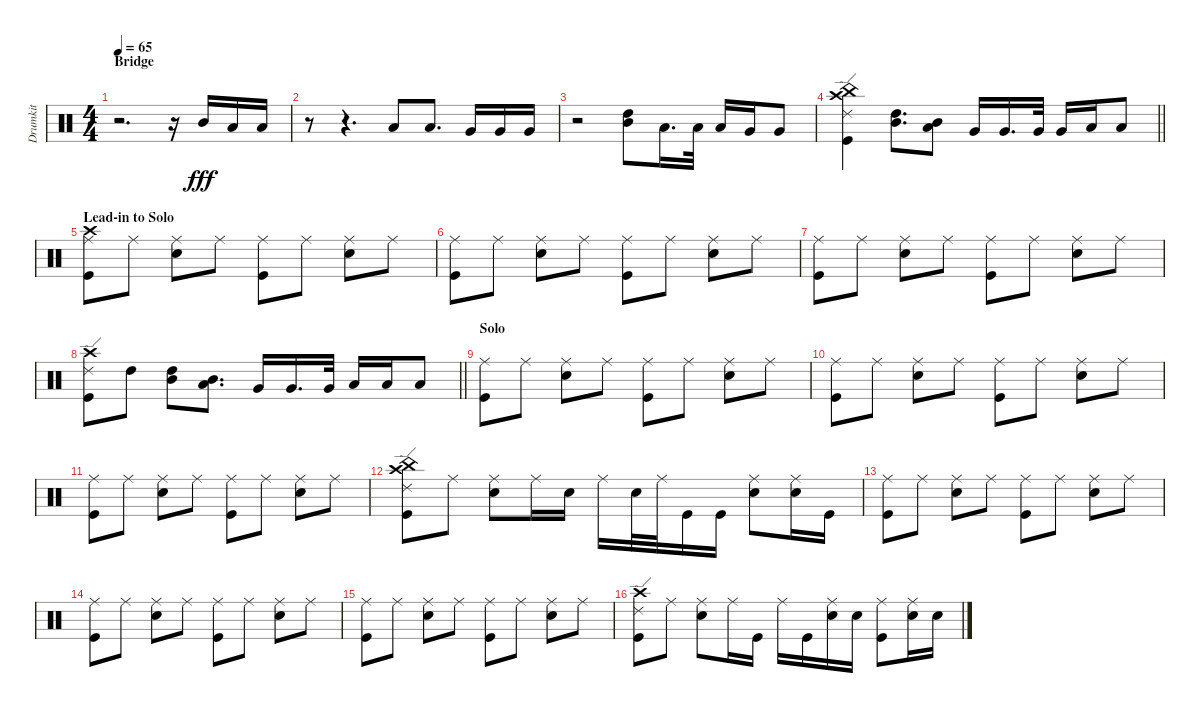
\track ("Drumkit" "Drumkit") {instrument percussion}
\staff {score}
\articulation defaults
\ts (4 4)
\section ("" "Bridge")
\tempo 65
\clef neutral
\ks c
r.2{d dy fff} r.16 "Mid Tom (hit)".16 "Low Tom (hit)".16 "Low Tom (hit)".16 |
r.8 r.4{d} "Low Tom (hit)".8 "Low Tom (hit)".8{d} "Very Low Tom (hit)".16 "Very Low Tom (hit)".16 "Very Low Tom (hit)".16 |
r.2 ("High Tom (hit)" "Mid Tom (hit)").8 "Low Tom (hit)".16{d} "Low Tom (hit)".32 "Low Tom (hit)".16 "Very Low Tom (hit)".16 "Very Low Tom (hit)".8 |
\barLineRight lightlight
("Crash high (hit)" "China (hit)" "Ride (edge) 2" "Kick (hit)").4 ("High Tom (hit)" "Mid Tom (hit)").8{d} ("Mid Tom (hit)" "Low Tom (hit)").8 "Very Low Tom (hit)".16 "Very Low Tom (hit)".16{d} "Very Low Tom (hit)".32 "Very Low Tom (hit)".16 "Low Floor Tom (hit)".16 "Low Floor Tom (hit)".8 |
\section ("" "Lead-in to Solo")
("Ride (middle)" "Crash high (hit)" "Kick (hit)").8 "Ride (middle)".8 ("Ride (middle)" "Snare (hit) 2").8 "Ride (middle)".8 ("Ride (middle)" "Kick (hit)").8 "Ride (middle)".8 ("Snare (hit) 2" "Ride (middle)").8 "Ride (middle)".8 |
("Ride (middle)" "Kick (hit)").8 "Ride (middle)".8 ("Ride (middle)" "Snare (hit) 2").8 "Ride (middle)".8 ("Ride (middle)" "Kick (hit)").8 "Ride (middle)".8 ("Snare (hit) 2" "Ride (middle)").8 "Ride (middle)".8 |
("Ride (middle)" "Kick (hit)").8 "Ride (middle)".8 ("Ride (middle)" "Snare (hit) 2").8 "Ride (middle)".8 ("Ride (middle)" "Kick (hit)").8 "Ride (middle)".8 ("Snare (hit) 2" "Ride (middle)").8 "Ride (middle)".8 |
\barLineRight lightlight
("Ride (edge) 2" "Crash high (hit)" "Kick (hit)").8 "High Tom (hit)".8 ("Mid Tom (hit)" "High Tom (hit)").8 ("Mid Tom (hit)" "Low Tom (hit)").8{d} "Very Low Tom (hit)".16 "Very Low Tom (hit)".16{d} "Very Low Tom (hit)".32 "Low Floor Tom (hit)".16 "Low Floor Tom (hit)".16 "Low Floor Tom (hit)".8 |
\section ("" "Solo")
("Ride (middle)" "Kick (hit)").8 "Ride (middle)".8 ("Ride (middle)" "Snare (hit) 2").8 "Ride (middle)".8 ("Ride (middle)" "Kick (hit)").8 "Ride (middle)".8 ("Snare (hit) 2" "Ride (middle)").8 "Ride (middle)".8 |
("Ride (middle)" "Kick (hit)").8 "Ride (middle)".8 ("Ride (middle)" "Snare (hit) 2").8 "Ride (middle)".8 ("Ride (middle)" "Kick (hit)").8 "Ride (middle)".8 ("Snare (hit) 2" "Ride (middle)").8 "Ride (middle)".8 |
("Ride (middle)" "Kick (hit)").8 "Ride (middle)".8 ("Ride (middle)" "Snare (hit) 2").8 "Ride (middle)".8 ("Ride (middle)" "Kick (hit)").8 "Ride (middle)".8 ("Snare (hit) 2" "Ride (middle)").8 "Ride (middle)".8 |
("Kick (hit)" "China (hit)" "Crash high (hit)" "Ride (edge) 2").8 "Ride (middle)".8 ("Ride (middle)" "Snare (hit) 2").8 "Ride (middle)".16 "Snare (hit) 2".16 "Ride (middle)".16 "Snare (hit) 2".32 "Ride (middle)".32 "Kick (hit)".16 "Kick (hit)".16 ("Ride (middle)" "Snare (hit) 2").8 ("Ride (middle)" "Snare (hit) 2").16 "Kick (hit)".16 |
("Ride (middle)" "Kick (hit)").8 "Ride (middle)".8 ("Ride (middle)" "Snare (hit) 2").8 "Ride (middle)".8 ("Ride (middle)" "Kick (hit)").8 "Ride (middle)".8 ("Snare (hit) 2" "Ride (middle)").8 "Ride (middle)".8 |
("Ride (middle)" "Kick (hit)").8 "Ride (middle)".8 ("Ride (middle)" "Snare (hit) 2").8 "Ride (middle)".8 ("Ride (middle)" "Kick (hit)").8 "Ride (middle)".8 ("Snare (hit) 2" "Ride (middle)").8 "Ride (middle)".8 |
("Ride (middle)" "Kick (hit)").8 "Ride (middle)".8 ("Ride (middle)" "Snare (hit) 2").8 "Ride (middle)".8 ("Ride (middle)" "Kick (hit)").8 "Ride (middle)".8 ("Snare (hit) 2" "Ride (middle)").8 "Ride (middle)".8 |
("Ride (edge) 2" "Crash high (hit)" "Kick (hit)").8 "Ride (middle)".8 ("Ride (middle)" "Snare (hit) 2").8 "Ride (middle)".16 "Kick (hit)".16 "Ride (middle)".16 "Kick (hit)".16 ("Ride (middle)" "Snare (hit) 2").16 "Snare (hit) 2".16 ("Kick (hit)" "Ride (middle)").8 ("Ride (middle)" "Snare (hit) 2").16 "Snare (hit) 2".16
